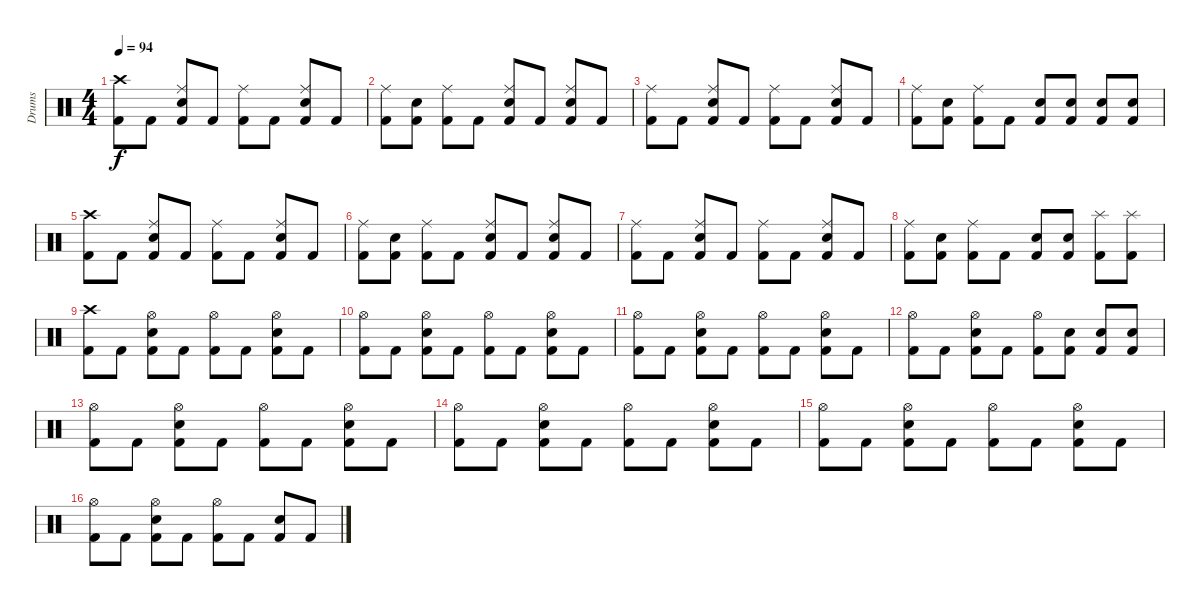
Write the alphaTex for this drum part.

\track ("Drums" "Drums") {instrument percussion}
\staff {score}
\articulation defaults
\ts (4 4)
\tempo 94
\clef neutral
\ks c
("Crash high (hit)" "Kick (hit) 2").8{dy f} "Kick (hit) 2".8 ("Ride (middle)" "Snare (hit) 2" "Kick (hit) 2").8 "Kick (hit) 2".8 ("Ride (middle)" "Kick (hit) 2").8 "Kick (hit) 2".8 ("Ride (middle)" "Snare (hit) 2" "Kick (hit) 2").8 "Kick (hit) 2".8 |
("Ride (middle)" "Kick (hit) 2").8 ("Snare (hit) 2" "Kick (hit) 2").8 ("Ride (middle)" "Kick (hit) 2").8 "Kick (hit) 2".8 ("Ride (middle)" "Snare (hit) 2" "Kick (hit) 2").8 "Kick (hit) 2".8 ("Ride (middle)" "Snare (hit) 2" "Kick (hit) 2").8 "Kick (hit) 2".8 |
("Ride (middle)" "Kick (hit) 2").8 "Kick (hit) 2".8 ("Ride (middle)" "Snare (hit) 2" "Kick (hit) 2").8 "Kick (hit) 2".8 ("Ride (middle)" "Kick (hit) 2").8 "Kick (hit) 2".8 ("Ride (middle)" "Snare (hit) 2" "Kick (hit) 2").8 "Kick (hit) 2".8 |
("Ride (middle)" "Kick (hit) 2").8 ("Snare (hit) 2" "Kick (hit) 2").8 ("Ride (middle)" "Kick (hit) 2").8 "Kick (hit) 2".8 ("Snare (hit) 2" "Kick (hit) 2").8 ("Snare (hit) 2" "Kick (hit) 2").8 ("Snare (hit) 2" "Kick (hit) 2").8 ("Snare (hit) 2" "Kick (hit) 2").8 |
("Crash high (hit)" "Kick (hit) 2").8 "Kick (hit) 2".8 ("Ride (middle)" "Snare (hit) 2" "Kick (hit) 2").8 "Kick (hit) 2".8 ("Ride (middle)" "Kick (hit) 2").8 "Kick (hit) 2".8 ("Ride (middle)" "Snare (hit) 2" "Kick (hit) 2").8 "Kick (hit) 2".8 |
("Ride (middle)" "Kick (hit) 2").8 ("Snare (hit) 2" "Kick (hit) 2").8 ("Ride (middle)" "Kick (hit) 2").8 "Kick (hit) 2".8 ("Ride (middle)" "Snare (hit) 2" "Kick (hit) 2").8 "Kick (hit) 2".8 ("Ride (middle)" "Snare (hit) 2" "Kick (hit) 2").8 "Kick (hit) 2".8 |
("Ride (middle)" "Kick (hit) 2").8 "Kick (hit) 2".8 ("Ride (middle)" "Snare (hit) 2" "Kick (hit) 2").8 "Kick (hit) 2".8 ("Ride (middle)" "Kick (hit) 2").8 "Kick (hit) 2".8 ("Ride (middle)" "Snare (hit) 2" "Kick (hit) 2").8 "Kick (hit) 2".8 |
("Ride (middle)" "Kick (hit) 2").8 ("Snare (hit) 2" "Kick (hit) 2").8 ("Ride (middle)" "Kick (hit) 2").8 "Kick (hit) 2".8 ("Snare (hit) 2" "Kick (hit) 2").8 ("Snare (hit) 2" "Kick (hit) 2").8 ("Splash (hit)" "Kick (hit) 2").8 ("Splash (hit)" "Kick (hit) 2").8 |
("Crash high (hit)" "Kick (hit) 2").8 "Kick (hit) 2".8 ("Hi-Hat (open)" "Snare (hit) 2" "Kick (hit) 2").8 "Kick (hit) 2".8 ("Hi-Hat (open)" "Kick (hit) 2").8 "Kick (hit) 2".8 ("Hi-Hat (open)" "Snare (hit) 2" "Kick (hit) 2").8 "Kick (hit) 2".8 |
("Hi-Hat (open)" "Kick (hit) 2").8 "Kick (hit) 2".8 ("Hi-Hat (open)" "Snare (hit) 2" "Kick (hit) 2").8 "Kick (hit) 2".8 ("Hi-Hat (open)" "Kick (hit) 2").8 "Kick (hit) 2".8 ("Hi-Hat (open)" "Snare (hit) 2" "Kick (hit) 2").8 "Kick (hit) 2".8 |
("Hi-Hat (open)" "Kick (hit) 2").8 "Kick (hit) 2".8 ("Hi-Hat (open)" "Snare (hit) 2" "Kick (hit) 2").8 "Kick (hit) 2".8 ("Hi-Hat (open)" "Kick (hit) 2").8 "Kick (hit) 2".8 ("Hi-Hat (open)" "Snare (hit) 2" "Kick (hit) 2").8 "Kick (hit) 2".8 |
("Hi-Hat (open)" "Kick (hit) 2").8 "Kick (hit) 2".8 ("Hi-Hat (open)" "Snare (hit) 2" "Kick (hit) 2").8 "Kick (hit) 2".8 ("Hi-Hat (open)" "Kick (hit) 2").8 ("Snare (hit) 2" "Kick (hit) 2").8 ("Snare (hit) 2" "Kick (hit) 2").8 ("Snare (hit) 2" "Kick (hit) 2").8 |
("Hi-Hat (open)" "Kick (hit) 2").8 "Kick (hit) 2".8 ("Hi-Hat (open)" "Snare (hit) 2" "Kick (hit) 2").8 "Kick (hit) 2".8 ("Hi-Hat (open)" "Kick (hit) 2").8 "Kick (hit) 2".8 ("Hi-Hat (open)" "Snare (hit) 2" "Kick (hit) 2").8 "Kick (hit) 2".8 |
("Hi-Hat (open)" "Kick (hit) 2").8 "Kick (hit) 2".8 ("Hi-Hat (open)" "Snare (hit) 2" "Kick (hit) 2").8 "Kick (hit) 2".8 ("Hi-Hat (open)" "Kick (hit) 2").8 "Kick (hit) 2".8 ("Hi-Hat (open)" "Snare (hit) 2" "Kick (hit) 2").8 "Kick (hit) 2".8 |
("Hi-Hat (open)" "Kick (hit) 2").8 "Kick (hit) 2".8 ("Hi-Hat (open)" "Snare (hit) 2" "Kick (hit) 2").8 "Kick (hit) 2".8 ("Hi-Hat (open)" "Kick (hit) 2").8 "Kick (hit) 2".8 ("Hi-Hat (open)" "Snare (hit) 2" "Kick (hit) 2").8 "Kick (hit) 2".8 |
("Hi-Hat (open)" "Kick (hit) 2").8 "Kick (hit) 2".8 ("Hi-Hat (open)" "Snare (hit) 2" "Kick (hit) 2").8 "Kick (hit) 2".8 ("Hi-Hat (open)" "Kick (hit) 2").8 "Kick (hit) 2".8 ("Snare (hit) 2" "Kick (hit) 2").8 "Kick (hit) 2".8
